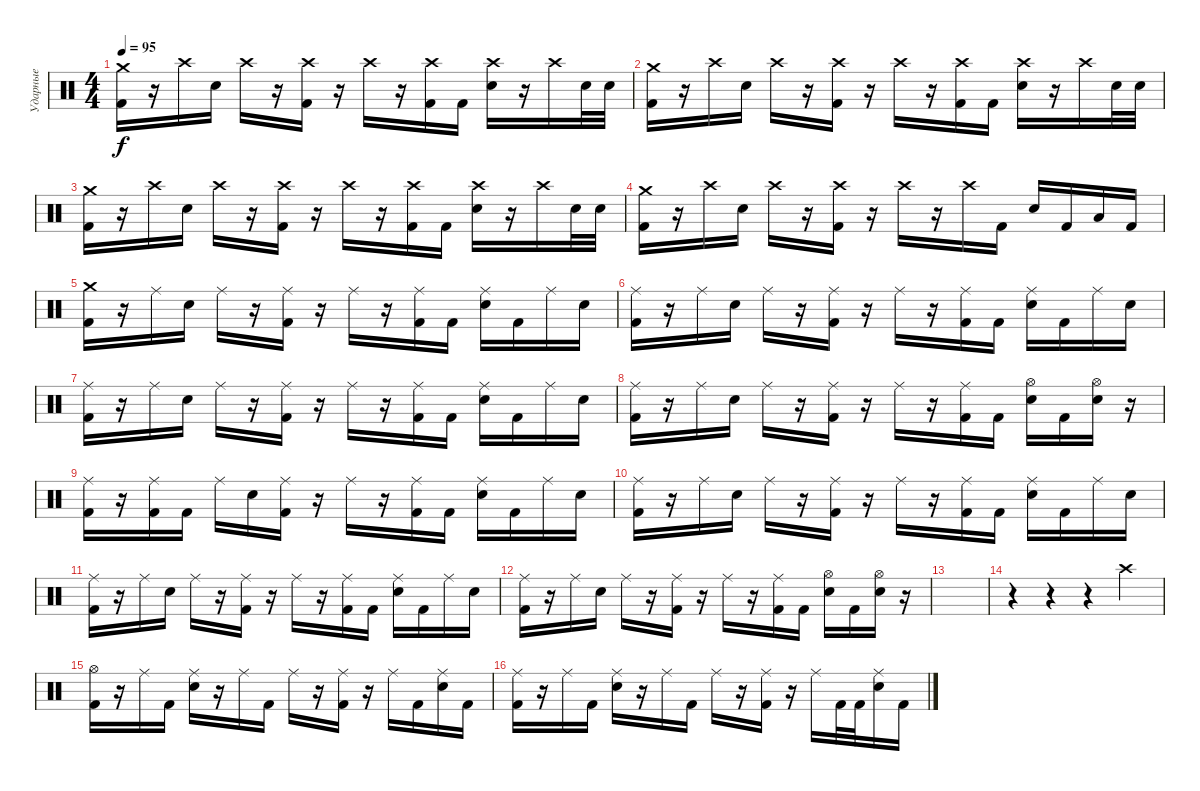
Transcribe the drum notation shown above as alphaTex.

\track ("Ударные" "Ударные") {instrument percussion}
\staff {score}
\articulation defaults
\ts (4 4)
\tempo 95
\clef neutral
\ks c
("Crash medium (hit)" "Kick (hit) 2").16{dy f} r.16 "Crash high (hit)".16 "Electric Snare (hit)".16 "Crash high (hit)".16 r.16 ("Crash high (hit)" "Kick (hit) 2").16 r.16 "Crash high (hit)".16 r.16 ("Crash high (hit)" "Kick (hit) 2").16 "Kick (hit) 2".16 ("Crash high (hit)" "Electric Snare (hit)").16 r.16 "Crash high (hit)".16 "Electric Snare (hit)".32 "Electric Snare (hit)".32 |
("Crash medium (hit)" "Kick (hit) 2").16 r.16 "Crash high (hit)".16 "Electric Snare (hit)".16 "Crash high (hit)".16 r.16 ("Crash high (hit)" "Kick (hit) 2").16 r.16 "Crash high (hit)".16 r.16 ("Crash high (hit)" "Kick (hit) 2").16 "Kick (hit) 2".16 ("Crash high (hit)" "Electric Snare (hit)").16 r.16 "Crash high (hit)".16 "Electric Snare (hit)".32 "Electric Snare (hit)".32 |
("Crash medium (hit)" "Kick (hit) 2").16 r.16 "Crash high (hit)".16 "Electric Snare (hit)".16 "Crash high (hit)".16 r.16 ("Crash high (hit)" "Kick (hit) 2").16 r.16 "Crash high (hit)".16 r.16 ("Crash high (hit)" "Kick (hit) 2").16 "Kick (hit) 2".16 ("Crash high (hit)" "Electric Snare (hit)").16 r.16 "Crash high (hit)".16 "Electric Snare (hit)".32 "Electric Snare (hit)".32 |
("Crash medium (hit)" "Kick (hit) 2").16 r.16 "Crash high (hit)".16 "Electric Snare (hit)".16 "Crash high (hit)".16 r.16 ("Crash high (hit)" "Kick (hit) 2").16 r.16 "Crash high (hit)".16 r.16 "Crash high (hit)".16 "Kick (hit) 2".16 "Electric Snare (hit)".16 "Kick (hit) 2".16 "Low Floor Tom (hit)".16 "Kick (hit) 2".16 |
("Crash medium (hit)" "Kick (hit) 2").16 r.16 "Ride (middle)".16 "Electric Snare (hit)".16 "Ride (middle)".16 r.16 ("Ride (middle)" "Kick (hit) 2").16 r.16 "Ride (middle)".16 r.16 ("Ride (middle)" "Kick (hit) 2").16 "Kick (hit) 2".16 ("Ride (middle)" "Electric Snare (hit)").16 "Kick (hit) 2".16 "Ride (middle)".16 "Electric Snare (hit)".16 |
("Ride (middle)" "Kick (hit) 2").16 r.16 "Ride (middle)".16 "Electric Snare (hit)".16 "Ride (middle)".16 r.16 ("Ride (middle)" "Kick (hit) 2").16 r.16 "Ride (middle)".16 r.16 ("Ride (middle)" "Kick (hit) 2").16 "Kick (hit) 2".16 ("Ride (middle)" "Electric Snare (hit)").16 "Kick (hit) 2".16 "Ride (middle)".16 "Electric Snare (hit)".16 |
("Ride (middle)" "Kick (hit) 2").16 r.16 "Ride (middle)".16 "Electric Snare (hit)".16 "Ride (middle)".16 r.16 ("Ride (middle)" "Kick (hit) 2").16 r.16 "Ride (middle)".16 r.16 ("Ride (middle)" "Kick (hit) 2").16 "Kick (hit) 2".16 ("Ride (middle)" "Electric Snare (hit)").16 "Kick (hit) 2".16 "Ride (middle)".16 "Electric Snare (hit)".16 |
("Ride (middle)" "Kick (hit) 2").16 r.16 "Ride (middle)".16 "Electric Snare (hit)".16 "Ride (middle)".16 r.16 ("Ride (middle)" "Kick (hit) 2").16 r.16 "Ride (middle)".16 r.16 ("Ride (middle)" "Kick (hit) 2").16 "Kick (hit) 2".16 ("Hi-Hat (open)" "Electric Snare (hit)").16 "Kick (hit) 2".16 ("Hi-Hat (open)" "Electric Snare (hit)").16 r.16 |
("Ride (middle)" "Kick (hit) 2").16 r.16 ("Ride (middle)" "Kick (hit) 2").16 "Kick (hit) 2".16 "Ride (middle)".16 "Electric Snare (hit)".16 ("Ride (middle)" "Kick (hit) 2").16 r.16 "Ride (middle)".16 r.16 ("Ride (middle)" "Kick (hit) 2").16 "Kick (hit) 2".16 ("Ride (middle)" "Electric Snare (hit)").16 "Kick (hit) 2".16 "Ride (middle)".16 "Electric Snare (hit)".16 |
("Ride (middle)" "Kick (hit) 2").16 r.16 "Ride (middle)".16 "Electric Snare (hit)".16 "Ride (middle)".16 r.16 ("Ride (middle)" "Kick (hit) 2").16 r.16 "Ride (middle)".16 r.16 ("Ride (middle)" "Kick (hit) 2").16 "Kick (hit) 2".16 ("Ride (middle)" "Electric Snare (hit)").16 "Kick (hit) 2".16 "Ride (middle)".16 "Electric Snare (hit)".16 |
("Ride (middle)" "Kick (hit) 2").16 r.16 "Ride (middle)".16 "Electric Snare (hit)".16 "Ride (middle)".16 r.16 ("Ride (middle)" "Kick (hit) 2").16 r.16 "Ride (middle)".16 r.16 ("Ride (middle)" "Kick (hit) 2").16 "Kick (hit) 2".16 ("Ride (middle)" "Electric Snare (hit)").16 "Kick (hit) 2".16 "Ride (middle)".16 "Electric Snare (hit)".16 |
("Ride (middle)" "Kick (hit) 2").16 r.16 "Ride (middle)".16 "Electric Snare (hit)".16 "Ride (middle)".16 r.16 ("Ride (middle)" "Kick (hit) 2").16 r.16 "Ride (middle)".16 r.16 ("Ride (middle)" "Kick (hit) 2").16 "Kick (hit) 2".16 ("Hi-Hat (open)" "Electric Snare (hit)").16 "Kick (hit) 2".16 ("Hi-Hat (open)" "Electric Snare (hit)").16 r.16 |
|
r.4 r.4 r.4 "Crash high (hit)".4 |
("Hi-Hat (open)" "Kick (hit) 2").16 r.16 "Ride (middle)".16 "Kick (hit) 2".16 ("Ride (middle)" "Electric Snare (hit)").16 r.16 "Ride (middle)".16 "Kick (hit) 2".16 "Ride (middle)".16 r.16 ("Ride (middle)" "Kick (hit) 2").16 r.16 "Ride (middle)".16 "Kick (hit) 2".16 ("Ride (middle)" "Electric Snare (hit)").16 "Kick (hit) 2".16 |
("Ride (middle)" "Kick (hit) 2").16 r.16 "Ride (middle)".16 "Kick (hit) 2".16 ("Ride (middle)" "Electric Snare (hit)").16 r.16 "Ride (middle)".16 "Kick (hit) 2".16 "Ride (middle)".16 r.16 ("Ride (middle)" "Kick (hit) 2").16 r.16 "Ride (middle)".16 "Kick (hit) 2".32 "Kick (hit) 2".32 ("Ride (middle)" "Electric Snare (hit)").16 "Kick (hit) 2".16
